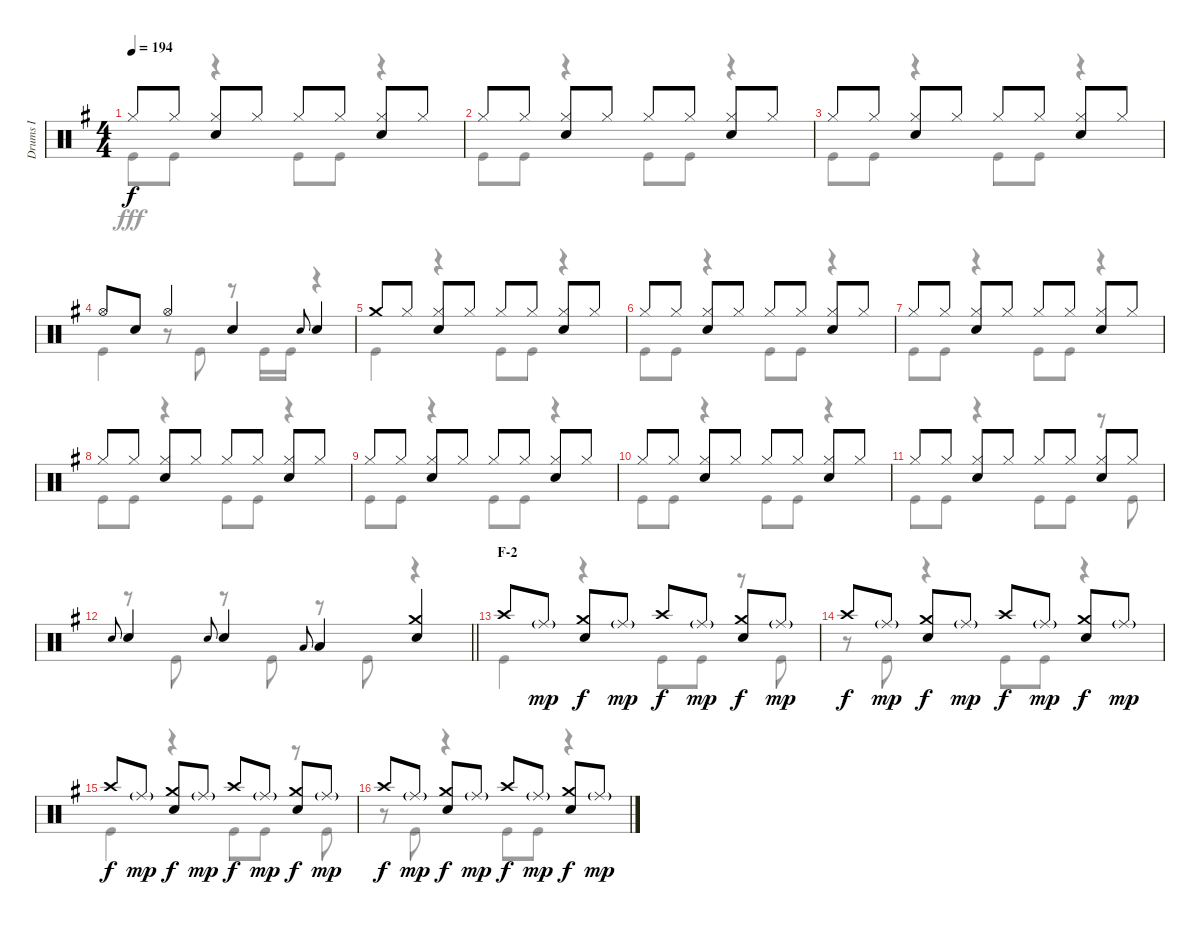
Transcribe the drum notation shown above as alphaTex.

\track ("Drums I" "Drums I") {instrument percussion}
\staff {score}
\articulation defaults
\voice
\ts (4 4)
\tempo 194
\clef neutral
\ks g "Hi-Hat (closed)".8{dy f} "Hi-Hat (closed)".8
("Hi-Hat (closed)" "Snare (hit) 2").8 "Hi-Hat (closed)".8 "Hi-Hat (closed)".8 "Hi-Hat (closed)".8 ("Hi-Hat (closed)" "Snare (hit) 2").8 "Hi-Hat (closed)".8 |
"Hi-Hat (closed)".8 "Hi-Hat (closed)".8 ("Hi-Hat (closed)" "Snare (hit) 2").8 "Hi-Hat (closed)".8 "Hi-Hat (closed)".8 "Hi-Hat (closed)".8 ("Hi-Hat (closed)" "Snare (hit) 2").8 "Hi-Hat (closed)".8 |
"Hi-Hat (closed)".8 "Hi-Hat (closed)".8 ("Hi-Hat (closed)" "Snare (hit) 2").8 "Hi-Hat (closed)".8 "Hi-Hat (closed)".8 "Hi-Hat (closed)".8 ("Hi-Hat (closed)" "Snare (hit) 2").8 "Hi-Hat (closed)".8 |
"Hi-Hat (open)".8 "Snare (hit) 2".8 "Hi-Hat (open)".4 "Snare (hit) 2".4 "Snare (hit) 2".8{gr onbeat} "Snare (hit) 2".4 |
"Crash medium (hit)".8 "Hi-Hat (closed)".8 ("Hi-Hat (closed)" "Snare (hit) 2").8 "Hi-Hat (closed)".8 "Hi-Hat (closed)".8 "Hi-Hat (closed)".8 ("Hi-Hat (closed)" "Snare (hit) 2").8 "Hi-Hat (closed)".8 |
"Hi-Hat (closed)".8 "Hi-Hat (closed)".8 ("Hi-Hat (closed)" "Snare (hit) 2").8 "Hi-Hat (closed)".8 "Hi-Hat (closed)".8 "Hi-Hat (closed)".8 ("Hi-Hat (closed)" "Snare (hit) 2").8 "Hi-Hat (closed)".8 |
"Hi-Hat (closed)".8 "Hi-Hat (closed)".8 ("Hi-Hat (closed)" "Snare (hit) 2").8 "Hi-Hat (closed)".8 "Hi-Hat (closed)".8 "Hi-Hat (closed)".8 ("Hi-Hat (closed)" "Snare (hit) 2").8 "Hi-Hat (closed)".8 |
"Hi-Hat (closed)".8 "Hi-Hat (closed)".8 ("Hi-Hat (closed)" "Snare (hit) 2").8 "Hi-Hat (closed)".8 "Hi-Hat (closed)".8 "Hi-Hat (closed)".8 ("Hi-Hat (closed)" "Snare (hit) 2").8 "Hi-Hat (closed)".8 |
"Hi-Hat (closed)".8 "Hi-Hat (closed)".8 ("Hi-Hat (closed)" "Snare (hit) 2").8 "Hi-Hat (closed)".8 "Hi-Hat (closed)".8 "Hi-Hat (closed)".8 ("Hi-Hat (closed)" "Snare (hit) 2").8 "Hi-Hat (closed)".8 |
"Hi-Hat (closed)".8 "Hi-Hat (closed)".8 ("Hi-Hat (closed)" "Snare (hit) 2").8 "Hi-Hat (closed)".8 "Hi-Hat (closed)".8 "Hi-Hat (closed)".8 ("Hi-Hat (closed)" "Snare (hit) 2").8 "Hi-Hat (closed)".8 |
"Hi-Hat (closed)".8 "Hi-Hat (closed)".8 ("Hi-Hat (closed)" "Snare (hit) 2").8 "Hi-Hat (closed)".8 "Hi-Hat (closed)".8 "Hi-Hat (closed)".8 ("Hi-Hat (closed)" "Snare (hit) 2").8 "Hi-Hat (closed)".8 |
\barLineRight lightlight "Snare (hit) 2".8{gr onbeat} "Snare (hit) 2".4 "Snare (hit) 2".8{gr onbeat} "Snare (hit) 2".4 "Low Tom (hit)".8{gr onbeat} "Low Tom (hit)".4
("Crash medium (hit)" "Snare (hit) 2").4 |
\section ("" "F-2")
"Crash high (hit)".8 "Ride (middle)"{g}.8{dy mp} ("Crash medium (hit)" "Snare (hit) 2").8{dy f} "Ride (middle)"{g}.8{dy mp} "Crash high (hit)".8{dy f} "Ride (middle)"{g}.8{dy mp} ("Crash medium (hit)" "Snare (hit) 2").8{dy f} "Ride (middle)"{g}.8{dy mp} |
"Crash high (hit)".8{dy f} "Ride (middle)"{g}.8{dy mp} ("Crash medium (hit)" "Snare (hit) 2").8{dy f} "Ride (middle)"{g}.8{dy mp} "Crash high (hit)".8{dy f} "Ride (middle)"{g}.8{dy mp} ("Crash medium (hit)" "Snare (hit) 2").8{dy f} "Ride (middle)"{g}.8{dy mp} |
"Crash high (hit)".8{dy f} "Ride (middle)"{g}.8{dy mp} ("Crash medium (hit)" "Snare (hit) 2").8{dy f} "Ride (middle)"{g}.8{dy mp} "Crash high (hit)".8{dy f} "Ride (middle)"{g}.8{dy mp} ("Crash medium (hit)" "Snare (hit) 2").8{dy f} "Ride (middle)"{g}.8{dy mp} |
"Crash high (hit)".8{dy f} "Ride (middle)"{g}.8{dy mp} ("Crash medium (hit)" "Snare (hit) 2").8{dy f} "Ride (middle)"{g}.8{dy mp} "Crash high (hit)".8{dy f} "Ride (middle)"{g}.8{dy mp} ("Crash medium (hit)" "Snare (hit) 2").8{dy f} "Ride (middle)"{g}.8{dy mp}
\voice
\clef neutral
\ottava regular
\simile none
\ks g "Kick (hit)".8{dy fff} "Kick (hit)".8
r.4 "Kick (hit)".8 "Kick (hit)".8 r.4 |
"Kick (hit)".8 "Kick (hit)".8 r.4 "Kick (hit)".8 "Kick (hit)".8 r.4 |
"Kick (hit)".8 "Kick (hit)".8 r.4 "Kick (hit)".8 "Kick (hit)".8 r.4 |
"Kick (hit)".4 r.8 "Kick (hit)".8 r.8 "Kick (hit)".16 "Kick (hit)".16 r.4 |
"Kick (hit)".4 r.4 "Kick (hit)".8 "Kick (hit)".8 r.4 |
"Kick (hit)".8 "Kick (hit)".8 r.4 "Kick (hit)".8 "Kick (hit)".8 r.4 |
"Kick (hit)".8 "Kick (hit)".8 r.4 "Kick (hit)".8 "Kick (hit)".8 r.4 |
"Kick (hit)".8 "Kick (hit)".8 r.4 "Kick (hit)".8 "Kick (hit)".8 r.4 |
"Kick (hit)".8 "Kick (hit)".8 r.4 "Kick (hit)".8 "Kick (hit)".8 r.4 |
"Kick (hit)".8 "Kick (hit)".8 r.4 "Kick (hit)".8 "Kick (hit)".8 r.4 |
"Kick (hit)".8 "Kick (hit)".8 r.4 "Kick (hit)".8 "Kick (hit)".8 r.8 "Kick (hit)".8 |
\barLineRight lightlight
r.8 "Kick (hit)".8 r.8 "Kick (hit)".8 r.8 "Kick (hit)".8 r.4 |
"Kick (hit)".4 r.4 "Kick (hit)".8 "Kick (hit)".8 r.8 "Kick (hit)".8 |
r.8 "Kick (hit)".8 r.4 "Kick (hit)".8 "Kick (hit)".8 r.4 |
"Kick (hit)".4 r.4 "Kick (hit)".8 "Kick (hit)".8 r.8 "Kick (hit)".8 |
r.8 "Kick (hit)".8 r.4 "Kick (hit)".8 "Kick (hit)".8 r.4
